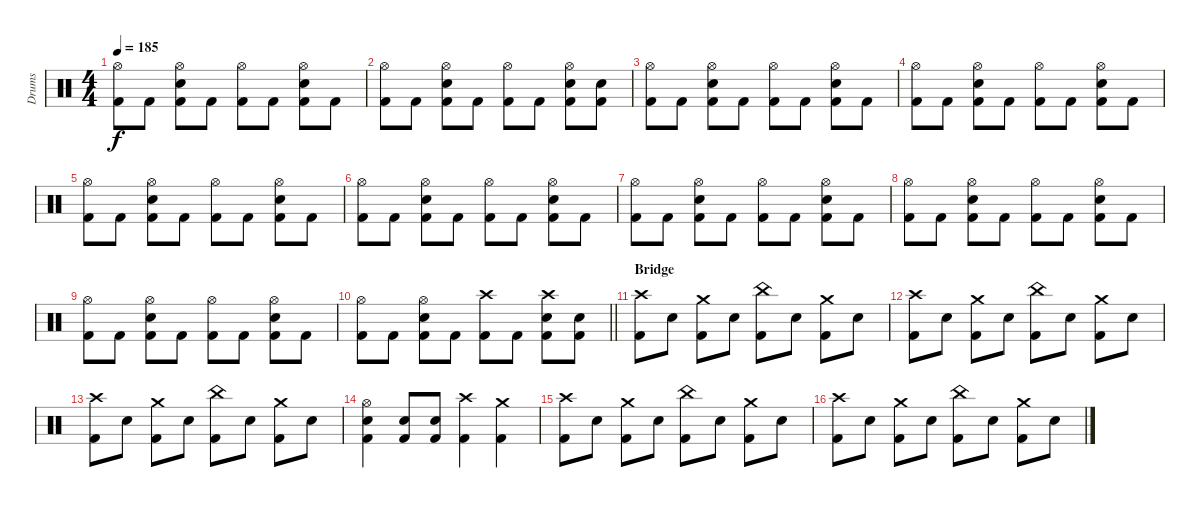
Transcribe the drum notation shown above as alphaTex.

\track ("Drums" "Drums") {instrument percussion}
\staff {score}
\articulation defaults
\ts (4 4)
\tempo 185
\clef neutral
\ks c
("Hi-Hat (open)" "Kick (hit) 2").8{dy f} "Kick (hit) 2".8 ("Hi-Hat (open)" "Snare (hit) 2" "Kick (hit) 2").8 "Kick (hit) 2".8 ("Hi-Hat (open)" "Kick (hit) 2").8 "Kick (hit) 2".8 ("Hi-Hat (open)" "Snare (hit) 2" "Kick (hit) 2").8 "Kick (hit) 2".8 |
("Hi-Hat (open)" "Kick (hit) 2").8 "Kick (hit) 2".8 ("Hi-Hat (open)" "Snare (hit) 2" "Kick (hit) 2").8 "Kick (hit) 2".8 ("Hi-Hat (open)" "Kick (hit) 2").8 "Kick (hit) 2".8 ("Hi-Hat (open)" "Snare (hit) 2" "Kick (hit) 2").8 ("Snare (hit) 2" "Kick (hit) 2").8 |
("Hi-Hat (open)" "Kick (hit) 2").8 "Kick (hit) 2".8 ("Hi-Hat (open)" "Snare (hit) 2" "Kick (hit) 2").8 "Kick (hit) 2".8 ("Hi-Hat (open)" "Kick (hit) 2").8 "Kick (hit) 2".8 ("Hi-Hat (open)" "Snare (hit) 2" "Kick (hit) 2").8 "Kick (hit) 2".8 |
("Hi-Hat (open)" "Kick (hit) 2").8 "Kick (hit) 2".8 ("Hi-Hat (open)" "Snare (hit) 2" "Kick (hit) 2").8 "Kick (hit) 2".8 ("Hi-Hat (open)" "Kick (hit) 2").8 "Kick (hit) 2".8 ("Hi-Hat (open)" "Snare (hit) 2" "Kick (hit) 2").8 "Kick (hit) 2".8 |
("Hi-Hat (open)" "Kick (hit) 2").8 "Kick (hit) 2".8 ("Hi-Hat (open)" "Snare (hit) 2" "Kick (hit) 2").8 "Kick (hit) 2".8 ("Hi-Hat (open)" "Kick (hit) 2").8 "Kick (hit) 2".8 ("Hi-Hat (open)" "Snare (hit) 2" "Kick (hit) 2").8 "Kick (hit) 2".8 |
("Hi-Hat (open)" "Kick (hit) 2").8 "Kick (hit) 2".8 ("Hi-Hat (open)" "Snare (hit) 2" "Kick (hit) 2").8 "Kick (hit) 2".8 ("Hi-Hat (open)" "Kick (hit) 2").8 "Kick (hit) 2".8 ("Hi-Hat (open)" "Snare (hit) 2" "Kick (hit) 2").8 "Kick (hit) 2".8 |
("Hi-Hat (open)" "Kick (hit) 2").8 "Kick (hit) 2".8 ("Hi-Hat (open)" "Snare (hit) 2" "Kick (hit) 2").8 "Kick (hit) 2".8 ("Hi-Hat (open)" "Kick (hit) 2").8 "Kick (hit) 2".8 ("Hi-Hat (open)" "Snare (hit) 2" "Kick (hit) 2").8 "Kick (hit) 2".8 |
("Hi-Hat (open)" "Kick (hit) 2").8 "Kick (hit) 2".8 ("Hi-Hat (open)" "Snare (hit) 2" "Kick (hit) 2").8 "Kick (hit) 2".8 ("Hi-Hat (open)" "Kick (hit) 2").8 "Kick (hit) 2".8 ("Hi-Hat (open)" "Snare (hit) 2" "Kick (hit) 2").8 "Kick (hit) 2".8 |
("Hi-Hat (open)" "Kick (hit) 2").8 "Kick (hit) 2".8 ("Hi-Hat (open)" "Snare (hit) 2" "Kick (hit) 2").8 "Kick (hit) 2".8 ("Hi-Hat (open)" "Kick (hit) 2").8 "Kick (hit) 2".8 ("Hi-Hat (open)" "Snare (hit) 2" "Kick (hit) 2").8 "Kick (hit) 2".8 |
\barLineRight lightlight
("Hi-Hat (open)" "Kick (hit) 2").8 "Kick (hit) 2".8 ("Hi-Hat (open)" "Snare (hit) 2" "Kick (hit) 2").8 "Kick (hit) 2".8 ("Crash high (hit)" "Kick (hit) 2").8 "Kick (hit) 2".8 ("Crash high (hit)" "Snare (hit) 2" "Kick (hit) 2").8 ("Snare (hit) 2" "Kick (hit) 2").8 |
\section ("" "Bridge")
("Crash high (hit)" "Kick (hit) 2").8 "Snare (hit) 2".8 ("Crash medium (hit)" "Kick (hit) 2").8 "Snare (hit) 2".8 ("China (hit)" "Kick (hit) 2").8 "Snare (hit) 2".8 ("Crash medium (hit)" "Kick (hit) 2").8 "Snare (hit) 2".8 |
("Crash high (hit)" "Kick (hit) 2").8 "Snare (hit) 2".8 ("Crash medium (hit)" "Kick (hit) 2").8 "Snare (hit) 2".8 ("China (hit)" "Kick (hit) 2").8 "Snare (hit) 2".8 ("Crash medium (hit)" "Kick (hit) 2").8 "Snare (hit) 2".8 |
("Crash high (hit)" "Kick (hit) 2").8 "Snare (hit) 2".8 ("Crash medium (hit)" "Kick (hit) 2").8 "Snare (hit) 2".8 ("China (hit)" "Kick (hit) 2").8 "Snare (hit) 2".8 ("Crash medium (hit)" "Kick (hit) 2").8 "Snare (hit) 2".8 |
("Hi-Hat (open)" "Snare (hit) 2" "Kick (hit) 2").4 ("Snare (hit) 2" "Kick (hit) 2").8 ("Snare (hit) 2" "Kick (hit) 2").8 ("Crash high (hit)" "Kick (hit) 2").4 ("Crash medium (hit)" "Kick (hit) 2").4 |
("Crash high (hit)" "Kick (hit) 2").8 "Snare (hit) 2".8 ("Crash medium (hit)" "Kick (hit) 2").8 "Snare (hit) 2".8 ("China (hit)" "Kick (hit) 2").8 "Snare (hit) 2".8 ("Crash medium (hit)" "Kick (hit) 2").8 "Snare (hit) 2".8 |
("Crash high (hit)" "Kick (hit) 2").8 "Snare (hit) 2".8 ("Crash medium (hit)" "Kick (hit) 2").8 "Snare (hit) 2".8 ("China (hit)" "Kick (hit) 2").8 "Snare (hit) 2".8 ("Crash medium (hit)" "Kick (hit) 2").8 "Snare (hit) 2".8
